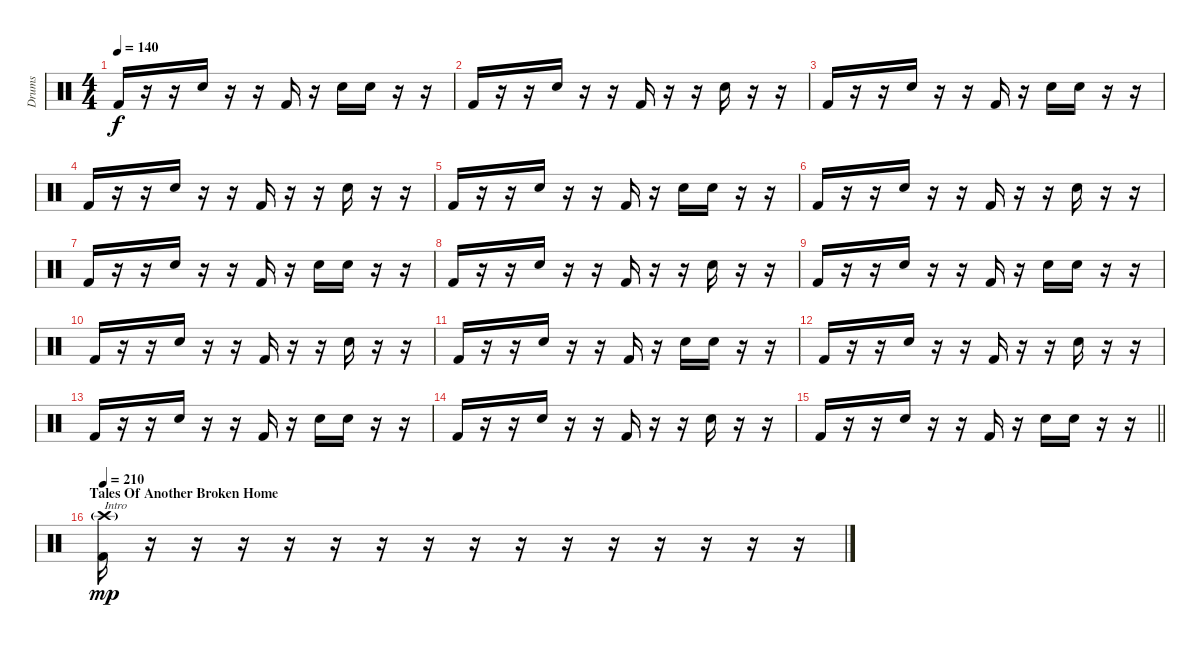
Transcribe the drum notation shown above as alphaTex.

\track ("Drums" "Drums") {instrument percussion}
\staff {score}
\articulation defaults
\ts (4 4)
\tempo 140
\clef neutral
\ks c "Kick (hit) 2".16{dy f}
r.16 r.16 "Snare (hit) 2".16 r.16 r.16 "Kick (hit) 2".16 r.16 "Snare (hit) 2".16 "Snare (hit) 2".16 r.16 r.16 |
"Kick (hit) 2".16 r.16 r.16 "Snare (hit) 2".16 r.16 r.16 "Kick (hit) 2".16 r.16 r.16 "Snare (hit) 2".16 r.16 r.16 |
"Kick (hit) 2".16 r.16 r.16 "Snare (hit) 2".16 r.16 r.16 "Kick (hit) 2".16 r.16 "Snare (hit) 2".16 "Snare (hit) 2".16 r.16 r.16 |
"Kick (hit) 2".16 r.16 r.16 "Snare (hit) 2".16 r.16 r.16 "Kick (hit) 2".16 r.16 r.16 "Snare (hit) 2".16 r.16 r.16 |
"Kick (hit) 2".16 r.16 r.16 "Snare (hit) 2".16 r.16 r.16 "Kick (hit) 2".16 r.16 "Snare (hit) 2".16 "Snare (hit) 2".16 r.16 r.16 |
"Kick (hit) 2".16 r.16 r.16 "Snare (hit) 2".16 r.16 r.16 "Kick (hit) 2".16 r.16 r.16 "Snare (hit) 2".16 r.16 r.16 |
"Kick (hit) 2".16 r.16 r.16 "Snare (hit) 2".16 r.16 r.16 "Kick (hit) 2".16 r.16 "Snare (hit) 2".16 "Snare (hit) 2".16 r.16 r.16 |
"Kick (hit) 2".16 r.16 r.16 "Snare (hit) 2".16 r.16 r.16 "Kick (hit) 2".16 r.16 r.16 "Snare (hit) 2".16 r.16 r.16 |
"Kick (hit) 2".16 r.16 r.16 "Snare (hit) 2".16 r.16 r.16 "Kick (hit) 2".16 r.16 "Snare (hit) 2".16 "Snare (hit) 2".16 r.16 r.16 |
"Kick (hit) 2".16 r.16 r.16 "Snare (hit) 2".16 r.16 r.16 "Kick (hit) 2".16 r.16 r.16 "Snare (hit) 2".16 r.16 r.16 |
"Kick (hit) 2".16 r.16 r.16 "Snare (hit) 2".16 r.16 r.16 "Kick (hit) 2".16 r.16 "Snare (hit) 2".16 "Snare (hit) 2".16 r.16 r.16 |
"Kick (hit) 2".16 r.16 r.16 "Snare (hit) 2".16 r.16 r.16 "Kick (hit) 2".16 r.16 r.16 "Snare (hit) 2".16 r.16 r.16 |
"Kick (hit) 2".16 r.16 r.16 "Snare (hit) 2".16 r.16 r.16 "Kick (hit) 2".16 r.16 "Snare (hit) 2".16 "Snare (hit) 2".16 r.16 r.16 |
"Kick (hit) 2".16 r.16 r.16 "Snare (hit) 2".16 r.16 r.16 "Kick (hit) 2".16 r.16 r.16 "Snare (hit) 2".16 r.16 r.16 |
\barLineRight lightlight "Kick (hit) 2".16
r.16 r.16 "Snare (hit) 2".16 r.16 r.16 "Kick (hit) 2".16 r.16 "Snare (hit) 2".16 "Snare (hit) 2".16 r.16 r.16 |
\section ("" "Tales Of Another Broken Home")
\tempo 210
("Crash high (hit)"{g} "Kick (hit) 2").16{txt "Intro" dy mp} r.16 r.16 r.16 r.16 r.16 r.16 r.16 r.16 r.16 r.16 r.16 r.16 r.16 r.16 r.16
